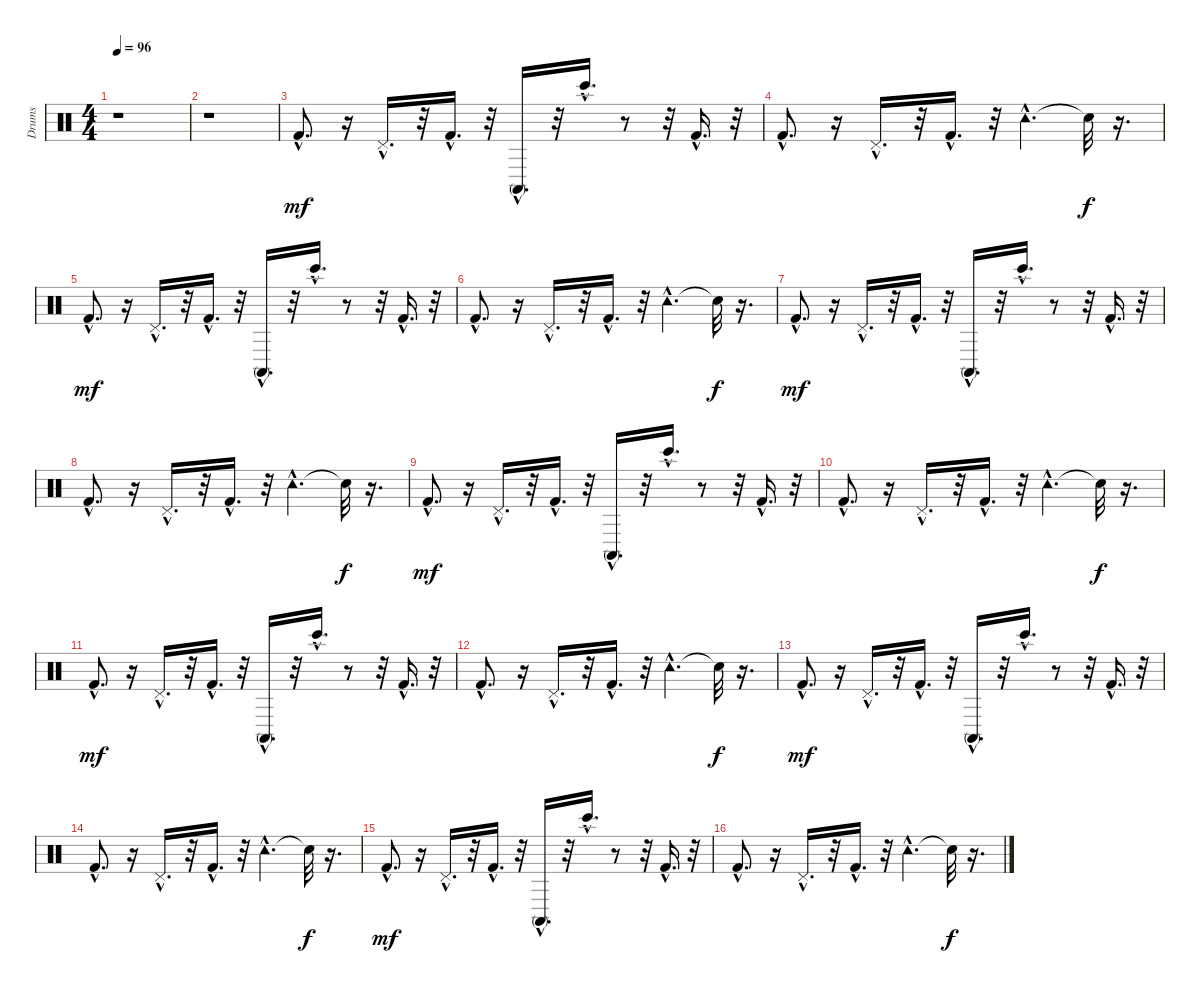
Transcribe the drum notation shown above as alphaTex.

\track ("Drums" "Drums") {instrument percussion}
\staff {score}
\articulation defaults
\ts (4 4)
\tempo 96
\clef neutral
\ks c
r.1{dy mf} |
r.1 |
"Kick (hit) 2"{hac}.8{d} r.16 "Pedal Hi-Hat (hit)"{hac}.16{d} r.32 "Kick (hit) 2"{hac}.16{d} r.32 "Conga high (mute)"{hac}.16{d} r.32 "Bongo High (hit)"{hac}.16{d} r.8 r.32 "Kick (hit) 2"{hac}.16{d} r.32 |
"Kick (hit) 2"{hac}.8{d} r.16 "Pedal Hi-Hat (hit)"{hac}.16{d} r.32 "Kick (hit) 2"{hac}.16{d} r.32 "Tambourine (hit)"{hac}.4{d} "Snare (hit)"{t}.32{dy f} r.16{d} |
"Kick (hit) 2"{hac}.8{d dy mf} r.16 "Pedal Hi-Hat (hit)"{hac}.16{d} r.32 "Kick (hit) 2"{hac}.16{d} r.32 "Conga high (mute)"{hac}.16{d} r.32 "Bongo High (hit)"{hac}.16{d} r.8 r.32 "Kick (hit) 2"{hac}.16{d} r.32 |
"Kick (hit) 2"{hac}.8{d} r.16 "Pedal Hi-Hat (hit)"{hac}.16{d} r.32 "Kick (hit) 2"{hac}.16{d} r.32 "Tambourine (hit)"{hac}.4{d} "Snare (hit)"{t}.32{dy f} r.16{d} |
"Kick (hit) 2"{hac}.8{d dy mf} r.16 "Pedal Hi-Hat (hit)"{hac}.16{d} r.32 "Kick (hit) 2"{hac}.16{d} r.32 "Conga high (mute)"{hac}.16{d} r.32 "Bongo High (hit)"{hac}.16{d} r.8 r.32 "Kick (hit) 2"{hac}.16{d} r.32 |
"Kick (hit) 2"{hac}.8{d} r.16 "Pedal Hi-Hat (hit)"{hac}.16{d} r.32 "Kick (hit) 2"{hac}.16{d} r.32 "Tambourine (hit)"{hac}.4{d} "Snare (hit)"{t}.32{dy f} r.16{d} |
"Kick (hit) 2"{hac}.8{d dy mf} r.16 "Pedal Hi-Hat (hit)"{hac}.16{d} r.32 "Kick (hit) 2"{hac}.16{d} r.32 "Conga high (mute)"{hac}.16{d} r.32 "Bongo High (hit)"{hac}.16{d} r.8 r.32 "Kick (hit) 2"{hac}.16{d} r.32 |
"Kick (hit) 2"{hac}.8{d} r.16 "Pedal Hi-Hat (hit)"{hac}.16{d} r.32 "Kick (hit) 2"{hac}.16{d} r.32 "Tambourine (hit)"{hac}.4{d} "Snare (hit)"{t}.32{dy f} r.16{d} |
"Kick (hit) 2"{hac}.8{d dy mf} r.16 "Pedal Hi-Hat (hit)"{hac}.16{d} r.32 "Kick (hit) 2"{hac}.16{d} r.32 "Conga high (mute)"{hac}.16{d} r.32 "Bongo High (hit)"{hac}.16{d} r.8 r.32 "Kick (hit) 2"{hac}.16{d} r.32 |
"Kick (hit) 2"{hac}.8{d} r.16 "Pedal Hi-Hat (hit)"{hac}.16{d} r.32 "Kick (hit) 2"{hac}.16{d} r.32 "Tambourine (hit)"{hac}.4{d} "Snare (hit)"{t}.32{dy f} r.16{d} |
"Kick (hit) 2"{hac}.8{d dy mf} r.16 "Pedal Hi-Hat (hit)"{hac}.16{d} r.32 "Kick (hit) 2"{hac}.16{d} r.32 "Conga high (mute)"{hac}.16{d} r.32 "Bongo High (hit)"{hac}.16{d} r.8 r.32 "Kick (hit) 2"{hac}.16{d} r.32 |
"Kick (hit) 2"{hac}.8{d} r.16 "Pedal Hi-Hat (hit)"{hac}.16{d} r.32 "Kick (hit) 2"{hac}.16{d} r.32 "Tambourine (hit)"{hac}.4{d} "Snare (hit)"{t}.32{dy f} r.16{d} |
"Kick (hit) 2"{hac}.8{d dy mf} r.16 "Pedal Hi-Hat (hit)"{hac}.16{d} r.32 "Kick (hit) 2"{hac}.16{d} r.32 "Conga high (mute)"{hac}.16{d} r.32 "Bongo High (hit)"{hac}.16{d} r.8 r.32 "Kick (hit) 2"{hac}.16{d} r.32 |
"Kick (hit) 2"{hac}.8{d} r.16 "Pedal Hi-Hat (hit)"{hac}.16{d} r.32 "Kick (hit) 2"{hac}.16{d} r.32 "Tambourine (hit)"{hac}.4{d} "Snare (hit)"{t}.32{dy f} r.16{d}
